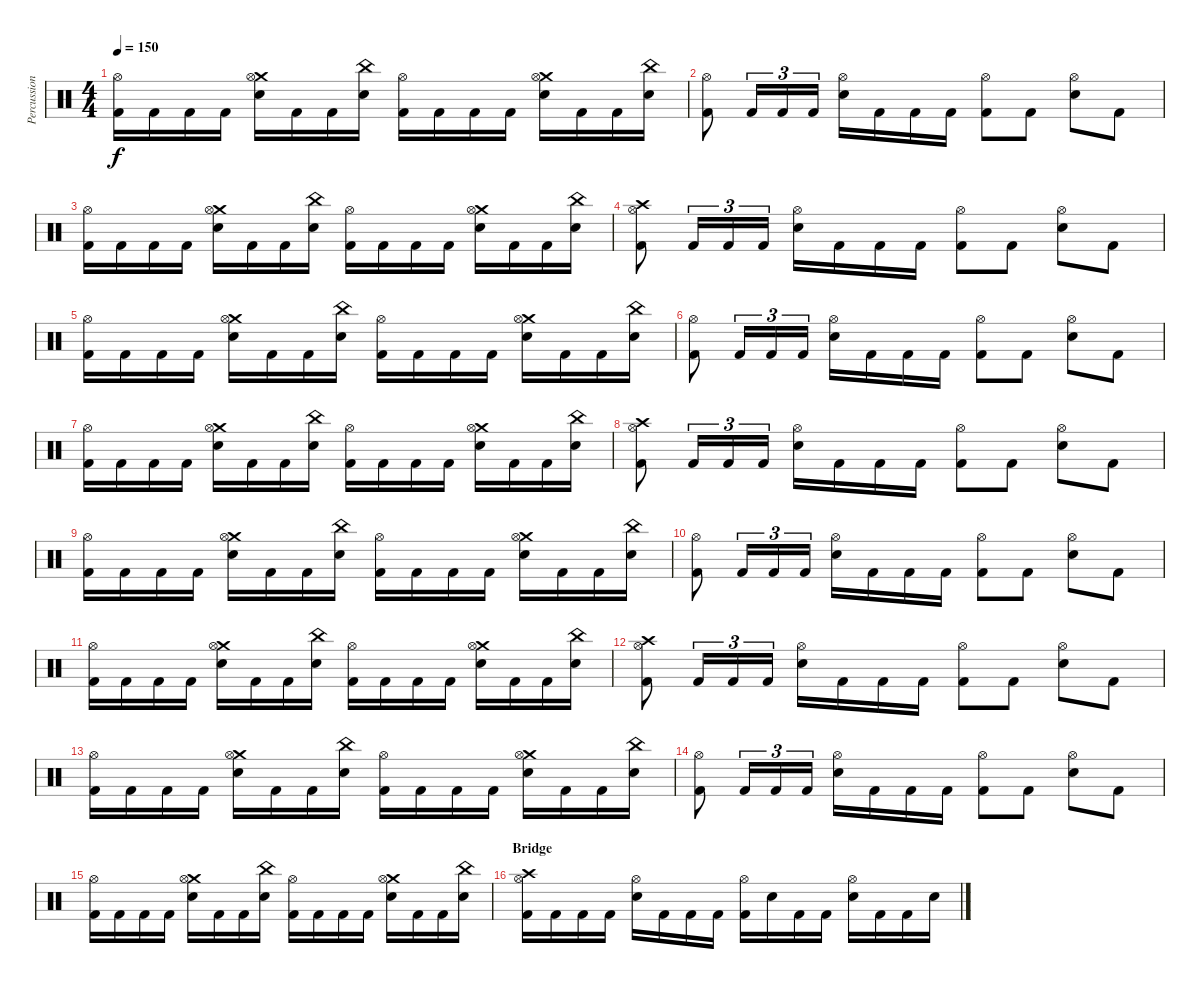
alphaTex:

\track ("Percussions" "Percussion") {instrument percussion}
\staff {score}
\articulation defaults
\ts (4 4)
\tempo 150
\clef neutral
\ks c
("Hi-Hat (open)" "Kick (hit) 2").16{dy f} "Kick (hit) 2".16 "Kick (hit) 2".16 "Kick (hit) 2".16 ("Crash medium (hit)" "Hi-Hat (open)" "Electric Snare (hit)").16 "Kick (hit) 2".16 "Kick (hit) 2".16 ("China (hit)" "Electric Snare (hit)").16 ("Hi-Hat (open)" "Kick (hit) 2").16 "Kick (hit) 2".16 "Kick (hit) 2".16 "Kick (hit) 2".16 ("Crash medium (hit)" "Hi-Hat (open)" "Electric Snare (hit)").16 "Kick (hit) 2".16 "Kick (hit) 2".16 ("China (hit)" "Electric Snare (hit)").16 |
("Hi-Hat (open)" "Kick (hit) 2").8 "Kick (hit) 2".16{tu (3 2)} "Kick (hit) 2".16{tu (3 2)} "Kick (hit) 2".16{tu (3 2)} ("Hi-Hat (open)" "Electric Snare (hit)").16 "Kick (hit) 2".16 "Kick (hit) 2".16 "Kick (hit) 2".16 ("Hi-Hat (open)" "Kick (hit) 2").8 "Kick (hit) 2".8 ("Hi-Hat (open)" "Electric Snare (hit)").8 "Kick (hit) 2".8 |
("Hi-Hat (open)" "Kick (hit) 2").16 "Kick (hit) 2".16 "Kick (hit) 2".16 "Kick (hit) 2".16 ("Crash medium (hit)" "Hi-Hat (open)" "Electric Snare (hit)").16 "Kick (hit) 2".16 "Kick (hit) 2".16 ("China (hit)" "Electric Snare (hit)").16 ("Hi-Hat (open)" "Kick (hit) 2").16 "Kick (hit) 2".16 "Kick (hit) 2".16 "Kick (hit) 2".16 ("Crash medium (hit)" "Hi-Hat (open)" "Electric Snare (hit)").16 "Kick (hit) 2".16 "Kick (hit) 2".16 ("China (hit)" "Electric Snare (hit)").16 |
("Crash high (hit)" "Hi-Hat (open)" "Kick (hit) 2").8 "Kick (hit) 2".16{tu (3 2)} "Kick (hit) 2".16{tu (3 2)} "Kick (hit) 2".16{tu (3 2)} ("Hi-Hat (open)" "Electric Snare (hit)").16 "Kick (hit) 2".16 "Kick (hit) 2".16 "Kick (hit) 2".16 ("Hi-Hat (open)" "Kick (hit) 2").8 "Kick (hit) 2".8 ("Hi-Hat (open)" "Electric Snare (hit)").8 "Kick (hit) 2".8 |
("Hi-Hat (open)" "Kick (hit) 2").16 "Kick (hit) 2".16 "Kick (hit) 2".16 "Kick (hit) 2".16 ("Crash medium (hit)" "Hi-Hat (open)" "Electric Snare (hit)").16 "Kick (hit) 2".16 "Kick (hit) 2".16 ("China (hit)" "Electric Snare (hit)").16 ("Hi-Hat (open)" "Kick (hit) 2").16 "Kick (hit) 2".16 "Kick (hit) 2".16 "Kick (hit) 2".16 ("Crash medium (hit)" "Hi-Hat (open)" "Electric Snare (hit)").16 "Kick (hit) 2".16 "Kick (hit) 2".16 ("China (hit)" "Electric Snare (hit)").16 |
("Hi-Hat (open)" "Kick (hit) 2").8 "Kick (hit) 2".16{tu (3 2)} "Kick (hit) 2".16{tu (3 2)} "Kick (hit) 2".16{tu (3 2)} ("Hi-Hat (open)" "Electric Snare (hit)").16 "Kick (hit) 2".16 "Kick (hit) 2".16 "Kick (hit) 2".16 ("Hi-Hat (open)" "Kick (hit) 2").8 "Kick (hit) 2".8 ("Hi-Hat (open)" "Electric Snare (hit)").8 "Kick (hit) 2".8 |
("Hi-Hat (open)" "Kick (hit) 2").16 "Kick (hit) 2".16 "Kick (hit) 2".16 "Kick (hit) 2".16 ("Crash medium (hit)" "Hi-Hat (open)" "Electric Snare (hit)").16 "Kick (hit) 2".16 "Kick (hit) 2".16 ("China (hit)" "Electric Snare (hit)").16 ("Hi-Hat (open)" "Kick (hit) 2").16 "Kick (hit) 2".16 "Kick (hit) 2".16 "Kick (hit) 2".16 ("Crash medium (hit)" "Hi-Hat (open)" "Electric Snare (hit)").16 "Kick (hit) 2".16 "Kick (hit) 2".16 ("China (hit)" "Electric Snare (hit)").16 |
("Crash high (hit)" "Hi-Hat (open)" "Kick (hit) 2").8 "Kick (hit) 2".16{tu (3 2)} "Kick (hit) 2".16{tu (3 2)} "Kick (hit) 2".16{tu (3 2)} ("Hi-Hat (open)" "Electric Snare (hit)").16 "Kick (hit) 2".16 "Kick (hit) 2".16 "Kick (hit) 2".16 ("Hi-Hat (open)" "Kick (hit) 2").8 "Kick (hit) 2".8 ("Hi-Hat (open)" "Electric Snare (hit)").8 "Kick (hit) 2".8 |
("Hi-Hat (open)" "Kick (hit) 2").16 "Kick (hit) 2".16 "Kick (hit) 2".16 "Kick (hit) 2".16 ("Crash medium (hit)" "Hi-Hat (open)" "Electric Snare (hit)").16 "Kick (hit) 2".16 "Kick (hit) 2".16 ("China (hit)" "Electric Snare (hit)").16 ("Hi-Hat (open)" "Kick (hit) 2").16 "Kick (hit) 2".16 "Kick (hit) 2".16 "Kick (hit) 2".16 ("Crash medium (hit)" "Hi-Hat (open)" "Electric Snare (hit)").16 "Kick (hit) 2".16 "Kick (hit) 2".16 ("China (hit)" "Electric Snare (hit)").16 |
("Hi-Hat (open)" "Kick (hit) 2").8 "Kick (hit) 2".16{tu (3 2)} "Kick (hit) 2".16{tu (3 2)} "Kick (hit) 2".16{tu (3 2)} ("Hi-Hat (open)" "Electric Snare (hit)").16 "Kick (hit) 2".16 "Kick (hit) 2".16 "Kick (hit) 2".16 ("Hi-Hat (open)" "Kick (hit) 2").8 "Kick (hit) 2".8 ("Hi-Hat (open)" "Electric Snare (hit)").8 "Kick (hit) 2".8 |
("Hi-Hat (open)" "Kick (hit) 2").16 "Kick (hit) 2".16 "Kick (hit) 2".16 "Kick (hit) 2".16 ("Crash medium (hit)" "Hi-Hat (open)" "Electric Snare (hit)").16 "Kick (hit) 2".16 "Kick (hit) 2".16 ("China (hit)" "Electric Snare (hit)").16 ("Hi-Hat (open)" "Kick (hit) 2").16 "Kick (hit) 2".16 "Kick (hit) 2".16 "Kick (hit) 2".16 ("Crash medium (hit)" "Hi-Hat (open)" "Electric Snare (hit)").16 "Kick (hit) 2".16 "Kick (hit) 2".16 ("China (hit)" "Electric Snare (hit)").16 |
("Crash high (hit)" "Hi-Hat (open)" "Kick (hit) 2").8 "Kick (hit) 2".16{tu (3 2)} "Kick (hit) 2".16{tu (3 2)} "Kick (hit) 2".16{tu (3 2)} ("Hi-Hat (open)" "Electric Snare (hit)").16 "Kick (hit) 2".16 "Kick (hit) 2".16 "Kick (hit) 2".16 ("Hi-Hat (open)" "Kick (hit) 2").8 "Kick (hit) 2".8 ("Hi-Hat (open)" "Electric Snare (hit)").8 "Kick (hit) 2".8 |
("Hi-Hat (open)" "Kick (hit) 2").16 "Kick (hit) 2".16 "Kick (hit) 2".16 "Kick (hit) 2".16 ("Crash medium (hit)" "Hi-Hat (open)" "Electric Snare (hit)").16 "Kick (hit) 2".16 "Kick (hit) 2".16 ("China (hit)" "Electric Snare (hit)").16 ("Hi-Hat (open)" "Kick (hit) 2").16 "Kick (hit) 2".16 "Kick (hit) 2".16 "Kick (hit) 2".16 ("Crash medium (hit)" "Hi-Hat (open)" "Electric Snare (hit)").16 "Kick (hit) 2".16 "Kick (hit) 2".16 ("China (hit)" "Electric Snare (hit)").16 |
("Hi-Hat (open)" "Kick (hit) 2").8 "Kick (hit) 2".16{tu (3 2)} "Kick (hit) 2".16{tu (3 2)} "Kick (hit) 2".16{tu (3 2)} ("Hi-Hat (open)" "Electric Snare (hit)").16 "Kick (hit) 2".16 "Kick (hit) 2".16 "Kick (hit) 2".16 ("Hi-Hat (open)" "Kick (hit) 2").8 "Kick (hit) 2".8 ("Hi-Hat (open)" "Electric Snare (hit)").8 "Kick (hit) 2".8 |
("Hi-Hat (open)" "Kick (hit) 2").16 "Kick (hit) 2".16 "Kick (hit) 2".16 "Kick (hit) 2".16 ("Crash medium (hit)" "Hi-Hat (open)" "Electric Snare (hit)").16 "Kick (hit) 2".16 "Kick (hit) 2".16 ("China (hit)" "Electric Snare (hit)").16 ("Hi-Hat (open)" "Kick (hit) 2").16 "Kick (hit) 2".16 "Kick (hit) 2".16 "Kick (hit) 2".16 ("Crash medium (hit)" "Hi-Hat (open)" "Electric Snare (hit)").16 "Kick (hit) 2".16 "Kick (hit) 2".16 ("China (hit)" "Electric Snare (hit)").16 |
\section ("" "Bridge")
("Crash high (hit)" "Hi-Hat (open)" "Kick (hit) 2").16 "Kick (hit) 2".16 "Kick (hit) 2".16 "Kick (hit) 2".16 ("Hi-Hat (open)" "Electric Snare (hit)").16 "Kick (hit) 2".16 "Kick (hit) 2".16 "Kick (hit) 2".16 ("Hi-Hat (open)" "Kick (hit) 2").16 "Electric Snare (hit)".16 "Kick (hit) 2".16 "Kick (hit) 2".16 ("Hi-Hat (open)" "Electric Snare (hit)").16 "Kick (hit) 2".16 "Kick (hit) 2".16 "Electric Snare (hit)".16
